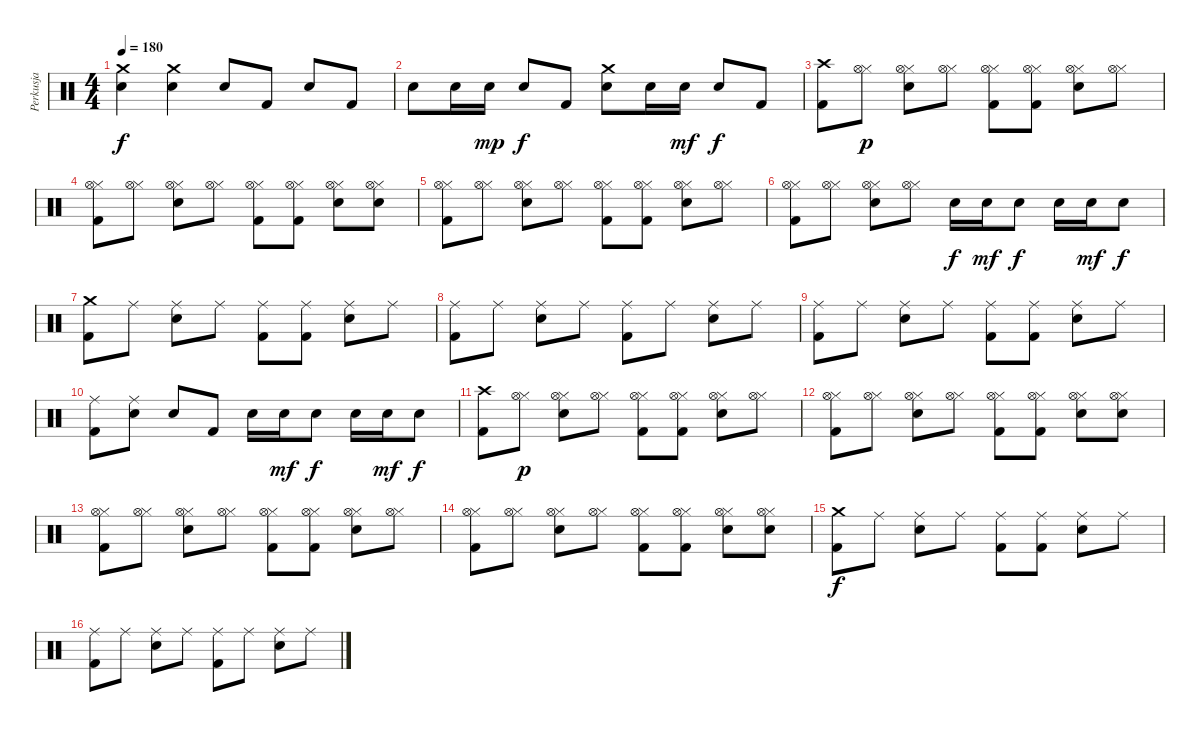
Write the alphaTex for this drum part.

\track ("Perkusja" "Perkusja") {instrument percussion}
\staff {score}
\articulation defaults
\ts (4 4)
\tempo 180
\clef neutral
\ks c
("Electric Snare (hit)" "Crash medium (hit)").4{dy f} ("Electric Snare (hit)" "Crash medium (hit)").4 "Electric Snare (hit)".8 "Kick (hit) 2".8 "Electric Snare (hit)".8 "Kick (hit) 2".8 |
"Electric Snare (hit)".8 "Electric Snare (hit)".16 "Electric Snare (hit)".16{dy mp} "Electric Snare (hit)".8{dy f} "Kick (hit) 2".8 ("Electric Snare (hit)" "Crash medium (hit)").8 "Electric Snare (hit)".16 "Electric Snare (hit)".16{dy mf} "Electric Snare (hit)".8{dy f} "Kick (hit) 2".8 |
("Kick (hit) 2" "Crash high (hit)").8 ("Hi-Hat (closed)" "Hi-Hat (open)").8{dy p} ("Electric Snare (hit)" "Hi-Hat (closed)" "Hi-Hat (open)").8 ("Hi-Hat (closed)" "Hi-Hat (open)").8 ("Kick (hit) 2" "Hi-Hat (closed)" "Hi-Hat (open)").8 ("Kick (hit) 2" "Hi-Hat (closed)" "Hi-Hat (open)").8 ("Electric Snare (hit)" "Hi-Hat (closed)" "Hi-Hat (open)").8 ("Hi-Hat (closed)" "Hi-Hat (open)").8 |
("Kick (hit) 2" "Hi-Hat (closed)" "Hi-Hat (open)").8 ("Hi-Hat (closed)" "Hi-Hat (open)").8 ("Electric Snare (hit)" "Hi-Hat (closed)" "Hi-Hat (open)").8 ("Hi-Hat (closed)" "Hi-Hat (open)").8 ("Kick (hit) 2" "Hi-Hat (closed)" "Hi-Hat (open)").8 ("Kick (hit) 2" "Hi-Hat (closed)" "Hi-Hat (open)").8 ("Electric Snare (hit)" "Hi-Hat (closed)" "Hi-Hat (open)").8 ("Electric Snare (hit)" "Hi-Hat (closed)" "Hi-Hat (open)").8 |
("Kick (hit) 2" "Hi-Hat (closed)" "Hi-Hat (open)").8 ("Hi-Hat (closed)" "Hi-Hat (open)").8 ("Electric Snare (hit)" "Hi-Hat (closed)" "Hi-Hat (open)").8 ("Hi-Hat (closed)" "Hi-Hat (open)").8 ("Kick (hit) 2" "Hi-Hat (closed)" "Hi-Hat (open)").8 ("Kick (hit) 2" "Hi-Hat (closed)" "Hi-Hat (open)").8 ("Electric Snare (hit)" "Hi-Hat (closed)" "Hi-Hat (open)").8 ("Hi-Hat (closed)" "Hi-Hat (open)").8 |
("Kick (hit) 2" "Hi-Hat (closed)" "Hi-Hat (open)").8 ("Hi-Hat (closed)" "Hi-Hat (open)").8 ("Electric Snare (hit)" "Hi-Hat (closed)" "Hi-Hat (open)").8 ("Hi-Hat (closed)" "Hi-Hat (open)").8 "Electric Snare (hit)".16{dy f} "Electric Snare (hit)".16{dy mf} "Electric Snare (hit)".8{dy f} "Electric Snare (hit)".16 "Electric Snare (hit)".16{dy mf} "Electric Snare (hit)".8{dy f} |
("Kick (hit) 2" "Crash medium (hit)").8 "Ride (middle)".8 ("Electric Snare (hit)" "Ride (middle)").8 "Ride (middle)".8 ("Kick (hit) 2" "Ride (middle)").8 ("Kick (hit) 2" "Ride (middle)").8 ("Electric Snare (hit)" "Ride (middle)").8 "Ride (middle)".8 |
("Kick (hit) 2" "Ride (middle)").8 "Ride (middle)".8 ("Electric Snare (hit)" "Ride (middle)").8 "Ride (middle)".8 ("Kick (hit) 2" "Ride (middle)").8 "Ride (middle)".8 ("Electric Snare (hit)" "Ride (middle)").8 "Ride (middle)".8 |
("Kick (hit) 2" "Ride (middle)").8 "Ride (middle)".8 ("Electric Snare (hit)" "Ride (middle)").8 "Ride (middle)".8 ("Kick (hit) 2" "Ride (middle)").8 ("Kick (hit) 2" "Ride (middle)").8 ("Electric Snare (hit)" "Ride (middle)").8 "Ride (middle)".8 |
("Kick (hit) 2" "Ride (middle)").8 ("Electric Snare (hit)" "Ride (middle)").8 "Electric Snare (hit)".8 "Kick (hit) 2".8 "Electric Snare (hit)".16 "Electric Snare (hit)".16{dy mf} "Electric Snare (hit)".8{dy f} "Electric Snare (hit)".16 "Electric Snare (hit)".16{dy mf} "Electric Snare (hit)".8{dy f} |
("Kick (hit) 2" "Crash high (hit)").8 ("Hi-Hat (closed)" "Hi-Hat (open)").8{dy p} ("Electric Snare (hit)" "Hi-Hat (closed)" "Hi-Hat (open)").8 ("Hi-Hat (closed)" "Hi-Hat (open)").8 ("Kick (hit) 2" "Hi-Hat (closed)" "Hi-Hat (open)").8 ("Kick (hit) 2" "Hi-Hat (closed)" "Hi-Hat (open)").8 ("Electric Snare (hit)" "Hi-Hat (closed)" "Hi-Hat (open)").8 ("Hi-Hat (closed)" "Hi-Hat (open)").8 |
("Kick (hit) 2" "Hi-Hat (closed)" "Hi-Hat (open)").8 ("Hi-Hat (closed)" "Hi-Hat (open)").8 ("Electric Snare (hit)" "Hi-Hat (closed)" "Hi-Hat (open)").8 ("Hi-Hat (closed)" "Hi-Hat (open)").8 ("Kick (hit) 2" "Hi-Hat (closed)" "Hi-Hat (open)").8 ("Kick (hit) 2" "Hi-Hat (closed)" "Hi-Hat (open)").8 ("Electric Snare (hit)" "Hi-Hat (closed)" "Hi-Hat (open)").8 ("Electric Snare (hit)" "Hi-Hat (closed)" "Hi-Hat (open)").8 |
("Kick (hit) 2" "Hi-Hat (closed)" "Hi-Hat (open)").8 ("Hi-Hat (closed)" "Hi-Hat (open)").8 ("Electric Snare (hit)" "Hi-Hat (closed)" "Hi-Hat (open)").8 ("Hi-Hat (closed)" "Hi-Hat (open)").8 ("Kick (hit) 2" "Hi-Hat (closed)" "Hi-Hat (open)").8 ("Kick (hit) 2" "Hi-Hat (closed)" "Hi-Hat (open)").8 ("Electric Snare (hit)" "Hi-Hat (closed)" "Hi-Hat (open)").8 ("Hi-Hat (closed)" "Hi-Hat (open)").8 |
("Kick (hit) 2" "Hi-Hat (closed)" "Hi-Hat (open)").8 ("Hi-Hat (closed)" "Hi-Hat (open)").8 ("Electric Snare (hit)" "Hi-Hat (closed)" "Hi-Hat (open)").8 ("Hi-Hat (closed)" "Hi-Hat (open)").8 ("Kick (hit) 2" "Hi-Hat (closed)" "Hi-Hat (open)").8 ("Kick (hit) 2" "Hi-Hat (closed)" "Hi-Hat (open)").8 ("Electric Snare (hit)" "Hi-Hat (closed)" "Hi-Hat (open)").8 ("Electric Snare (hit)" "Hi-Hat (closed)" "Hi-Hat (open)").8 |
("Kick (hit) 2" "Crash medium (hit)").8{dy f} "Ride (middle)".8 ("Electric Snare (hit)" "Ride (middle)").8 "Ride (middle)".8 ("Kick (hit) 2" "Ride (middle)").8 ("Kick (hit) 2" "Ride (middle)").8 ("Electric Snare (hit)" "Ride (middle)").8 "Ride (middle)".8 |
("Kick (hit) 2" "Ride (middle)").8 "Ride (middle)".8 ("Electric Snare (hit)" "Ride (middle)").8 "Ride (middle)".8 ("Kick (hit) 2" "Ride (middle)").8 "Ride (middle)".8 ("Electric Snare (hit)" "Ride (middle)").8 "Ride (middle)".8
